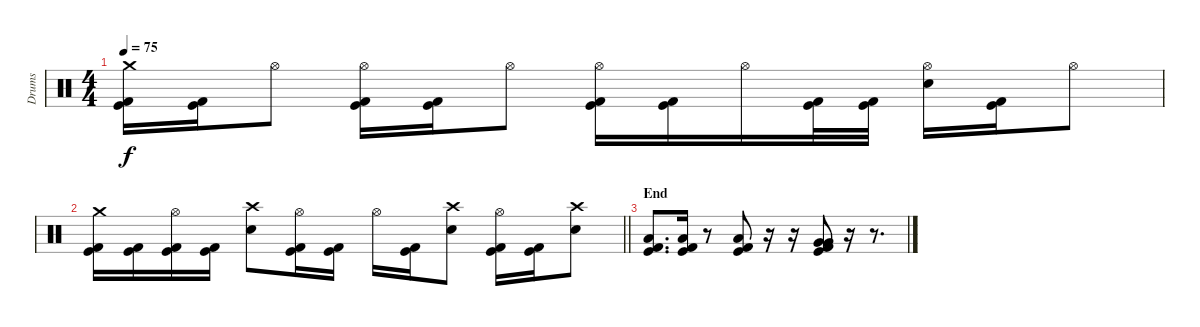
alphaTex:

\track ("Drums" "Drums") {instrument percussion}
\staff {score}
\articulation defaults
\ts (4 4)
\tempo 75
\clef neutral
\ks c
("Crash medium (hit)" "Kick (hit) 2" "Kick (hit)").16{dy f} ("Kick (hit) 2" "Kick (hit)").16 "Hi-Hat (open)".8 ("Hi-Hat (open)" "Kick (hit) 2" "Kick (hit)").16 ("Kick (hit) 2" "Kick (hit)").16 "Hi-Hat (open)".8 ("Hi-Hat (open)" "Kick (hit) 2" "Kick (hit)").16 ("Kick (hit) 2" "Kick (hit)").16 "Hi-Hat (open)".16 ("Kick (hit) 2" "Kick (hit)").32 ("Kick (hit) 2" "Kick (hit)").32 ("Hi-Hat (open)" "Electric Snare (hit)").16 ("Kick (hit) 2" "Kick (hit)").16 "Hi-Hat (open)".8 |
\barLineRight lightlight
("Crash medium (hit)" "Kick (hit) 2" "Kick (hit)").16 ("Kick (hit) 2" "Kick (hit)").16 ("Hi-Hat (open)" "Kick (hit) 2" "Kick (hit)").16 ("Kick (hit) 2" "Kick (hit)").16 ("Crash high (hit)" "Electric Snare (hit)").8 ("Hi-Hat (open)" "Kick (hit) 2" "Kick (hit)").16 ("Kick (hit) 2" "Kick (hit)").16 "Hi-Hat (open)".16 ("Kick (hit) 2" "Kick (hit)").16 ("Crash high (hit)" "Electric Snare (hit)").8 ("Hi-Hat (open)" "Kick (hit) 2" "Kick (hit)").16 ("Kick (hit) 2" "Kick (hit)").16 ("Crash high (hit)" "Electric Snare (hit)").8 |
\section ("" "End")
("Kick (hit) 2" "Kick (hit)" "Low Tom (hit)").8{d} ("Kick (hit) 2" "Kick (hit)" "Low Tom (hit)").16 r.8 ("Kick (hit) 2" "Kick (hit)" "Low Tom (hit)").8 r.16 r.16 ("Kick (hit) 2" "Kick (hit)" "Very Low Tom (hit)" "Very Low Tom (hit)").8 r.16 r.8{d}
